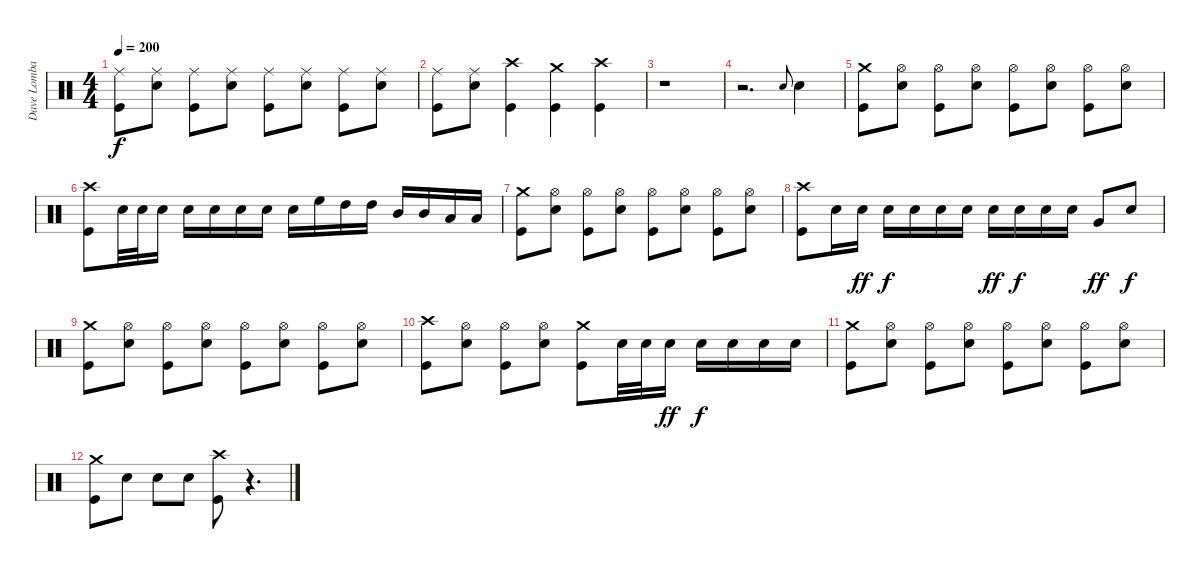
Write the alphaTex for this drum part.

\track ("Dave Lombardo" "Dave Lomba") {instrument percussion}
\staff {score}
\articulation defaults
\ts (4 4)
\tempo 200
\clef neutral
\ks c
("Ride (middle)" "Kick (hit)").8{dy f} ("Ride (middle)" "Snare (hit) 2").8 ("Ride (middle)" "Kick (hit)").8 ("Ride (middle)" "Snare (hit) 2").8 ("Ride (middle)" "Kick (hit)").8 ("Ride (middle)" "Snare (hit) 2").8 ("Ride (middle)" "Kick (hit)").8 ("Ride (middle)" "Snare (hit) 2").8 |
("Ride (middle)" "Kick (hit)").8 ("Ride (middle)" "Snare (hit) 2").8 ("Crash high (hit)" "Kick (hit)").4 ("Crash medium (hit)" "Kick (hit)").4 ("Crash high (hit)" "Kick (hit)").4 |
r.1 |
r.2{d} "Snare (hit) 2".8{gr onbeat} "Snare (hit) 2".4 |
("Crash medium (hit)" "Kick (hit)").8 ("Hi-Hat (open)" "Snare (hit) 2").8 ("Hi-Hat (open)" "Kick (hit)").8 ("Hi-Hat (open)" "Snare (hit) 2").8 ("Hi-Hat (open)" "Kick (hit)").8 ("Hi-Hat (open)" "Snare (hit) 2").8 ("Hi-Hat (open)" "Kick (hit)").8 ("Hi-Hat (open)" "Snare (hit) 2").8 |
("Crash high (hit)" "Kick (hit)").8 "Snare (hit) 2".32 "Snare (hit) 2".32 "Snare (hit) 2".16 "Snare (hit) 2".16 "Snare (hit) 2".16 "Snare (hit) 2".16 "Snare (hit) 2".16 "Snare (hit) 2".16 "High Floor Tom (hit)".16 "High Tom (hit)".16 "High Tom (hit)".16 "Mid Tom (hit)".16 "Mid Tom (hit)".16 "Low Tom (hit)".16 "Low Tom (hit)".16 |
("Crash medium (hit)" "Kick (hit)").8 ("Hi-Hat (open)" "Snare (hit) 2").8 ("Hi-Hat (open)" "Kick (hit)").8 ("Hi-Hat (open)" "Snare (hit) 2").8 ("Hi-Hat (open)" "Kick (hit)").8 ("Hi-Hat (open)" "Snare (hit) 2").8 ("Hi-Hat (open)" "Kick (hit)").8 ("Hi-Hat (open)" "Snare (hit) 2").8 |
("Crash high (hit)" "Kick (hit)").8 "Snare (hit) 2".16 "Snare (hit) 2".16{dy ff} "Snare (hit) 2".16{dy f} "Snare (hit) 2".16 "Snare (hit) 2".16 "Snare (hit) 2".16 "Snare (hit) 2".16{dy ff} "Snare (hit) 2".16{dy f} "Snare (hit) 2".16 "Snare (hit) 2".16 "Very Low Tom (hit)".8{dy ff} "Snare (hit) 2".8{dy f} |
("Crash medium (hit)" "Kick (hit)").8 ("Hi-Hat (open)" "Snare (hit) 2").8 ("Hi-Hat (open)" "Kick (hit)").8 ("Hi-Hat (open)" "Snare (hit) 2").8 ("Hi-Hat (open)" "Kick (hit)").8 ("Hi-Hat (open)" "Snare (hit) 2").8 ("Hi-Hat (open)" "Kick (hit)").8 ("Hi-Hat (open)" "Snare (hit) 2").8 |
("Crash high (hit)" "Kick (hit)").8 ("Hi-Hat (open)" "Snare (hit) 2").8 ("Hi-Hat (open)" "Kick (hit)").8 ("Hi-Hat (open)" "Snare (hit) 2").8 ("Crash medium (hit)" "Kick (hit)").8 "Snare (hit) 2".32 "Snare (hit) 2".32 "Snare (hit) 2".16{dy ff} "Snare (hit) 2".16{dy f} "Snare (hit) 2".16 "Snare (hit) 2".16 "Snare (hit) 2".16 |
("Crash medium (hit)" "Kick (hit)").8 ("Hi-Hat (open)" "Snare (hit) 2").8 ("Hi-Hat (open)" "Kick (hit)").8 ("Hi-Hat (open)" "Snare (hit) 2").8 ("Hi-Hat (open)" "Kick (hit)").8 ("Hi-Hat (open)" "Snare (hit) 2").8 ("Hi-Hat (open)" "Kick (hit)").8 ("Hi-Hat (open)" "Snare (hit) 2").8 |
("Crash medium (hit)" "Kick (hit)").8 "Snare (hit) 2".8 "Snare (hit) 2".8 "Snare (hit) 2".8 ("Crash high (hit)" "Kick (hit)").8 r.4{d volume 0}
